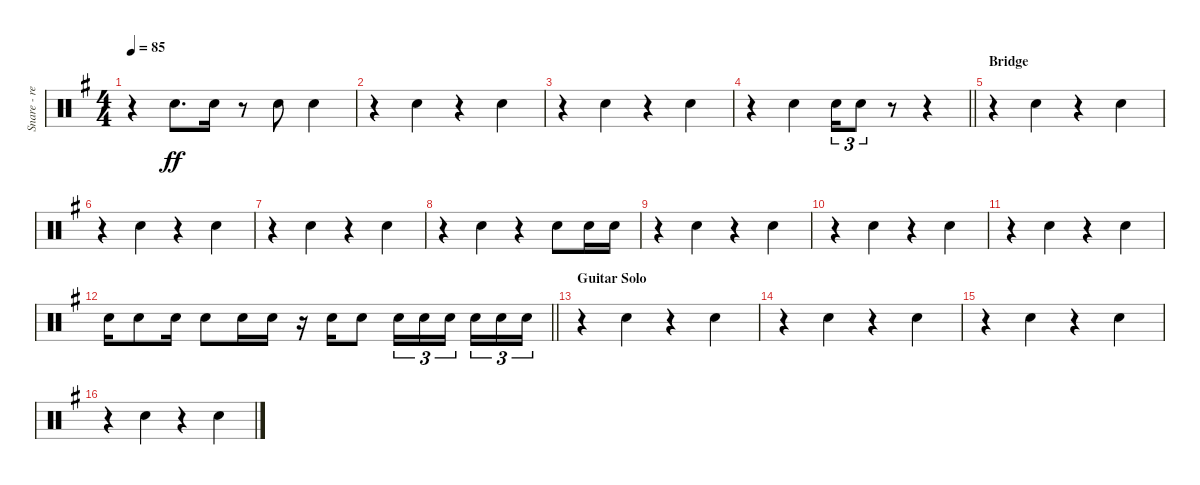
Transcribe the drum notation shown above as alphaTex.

\track ("Snare - reverb" "Snare - re") {instrument percussion}
\staff {score}
\articulation defaults
\ts (4 4)
\tempo 85
\clef neutral
\ks g
r.4{dy ff} "Snare (hit) 2".8{d} "Snare (hit) 2".16 r.8 "Snare (hit) 2".8 "Snare (hit) 2".4 |
r.4{beam merge} "Snare (hit) 2".4 r.4{beam merge} "Snare (hit) 2".4 |
r.4{beam merge} "Snare (hit) 2".4 r.4{beam merge} "Snare (hit) 2".4 |
\barLineRight lightlight
r.4{beam merge} "Snare (hit) 2".4 "Snare (hit) 2".16{tu (3 2)} "Snare (hit) 2".8{tu (3 2)} r.8 r.4 |
\section ("" "Bridge")
r.4{beam merge} "Snare (hit) 2".4 r.4{beam merge} "Snare (hit) 2".4 |
r.4{beam merge} "Snare (hit) 2".4 r.4{beam merge} "Snare (hit) 2".4 |
r.4{beam merge} "Snare (hit) 2".4 r.4{beam merge} "Snare (hit) 2".4 |
r.4{beam merge} "Snare (hit) 2".4 r.4 "Snare (hit) 2".8 "Snare (hit) 2".16 "Snare (hit) 2".16 |
r.4{beam merge} "Snare (hit) 2".4 r.4{beam merge} "Snare (hit) 2".4 |
r.4{beam merge} "Snare (hit) 2".4 r.4{beam merge} "Snare (hit) 2".4 |
r.4{beam merge} "Snare (hit) 2".4 r.4{beam merge} "Snare (hit) 2".4 |
\barLineRight lightlight "Snare (hit) 2".16 "Snare (hit) 2".8 "Snare (hit) 2".16 "Snare (hit) 2".8 "Snare (hit) 2".16 "Snare (hit) 2".16
r.16 "Snare (hit) 2".16 "Snare (hit) 2".8 "Snare (hit) 2".16{tu (3 2)} "Snare (hit) 2".16{tu (3 2)} "Snare (hit) 2".16{tu (3 2) beam splitsecondary} "Snare (hit) 2".16{tu (3 2)} "Snare (hit) 2".16{tu (3 2)} "Snare (hit) 2".16{tu (3 2)} |
\section ("" "Guitar Solo")
r.4{beam merge} "Snare (hit) 2".4 r.4{beam merge} "Snare (hit) 2".4 |
r.4{beam merge} "Snare (hit) 2".4 r.4{beam merge} "Snare (hit) 2".4 |
r.4{beam merge} "Snare (hit) 2".4 r.4{beam merge} "Snare (hit) 2".4 |
r.4{beam merge} "Snare (hit) 2".4 r.4{beam merge} "Snare (hit) 2".4
